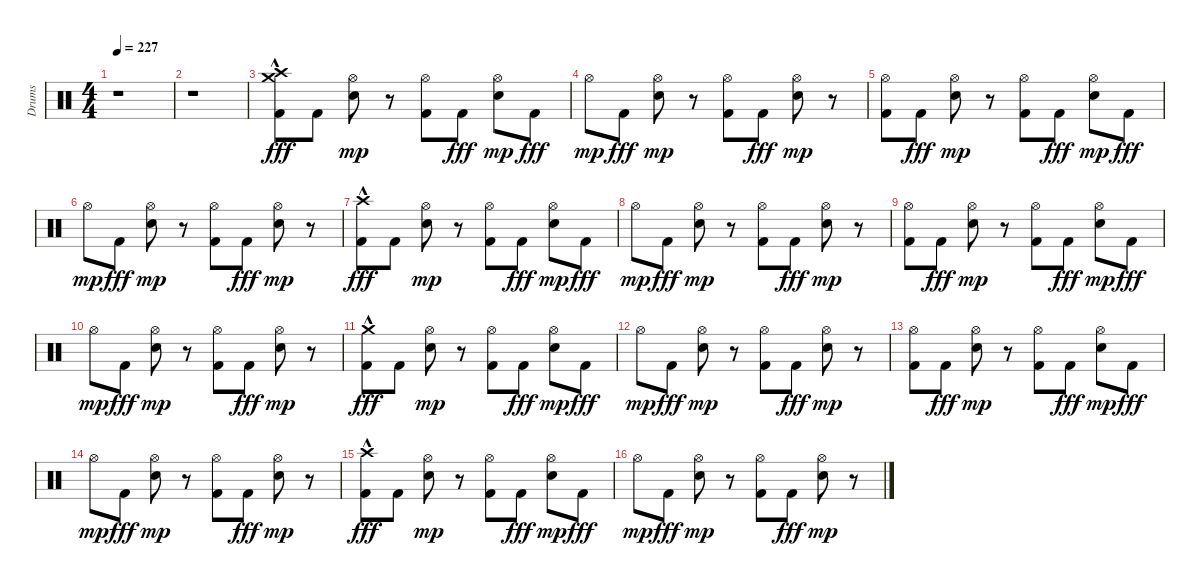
\track ("Drums" "Drums") {instrument percussion}
\staff {score}
\articulation defaults
\ts (4 4)
\tempo 227
\clef neutral
\ks c
r.1{dy fff} |
r.1 |
("Kick (hit) 2" "Crash high (hit)"{hac} "Crash medium (hit)"{hac}).8 "Kick (hit) 2".8 ("Snare (hit) 2" "Hi-Hat (open)").8{dy mp} r.8 ("Kick (hit) 2" "Hi-Hat (open)").8 "Kick (hit) 2".8{dy fff} ("Snare (hit) 2" "Hi-Hat (open)").8{dy mp} "Kick (hit) 2".8{dy fff} |
"Hi-Hat (open)".8{dy mp} "Kick (hit) 2".8{dy fff} ("Snare (hit) 2" "Hi-Hat (open)").8{dy mp} r.8 ("Kick (hit) 2" "Hi-Hat (open)").8 "Kick (hit) 2".8{dy fff} ("Snare (hit) 2" "Hi-Hat (open)").8{dy mp} r.8 |
("Kick (hit) 2" "Hi-Hat (open)").8 "Kick (hit) 2".8{dy fff} ("Snare (hit) 2" "Hi-Hat (open)").8{dy mp} r.8 ("Kick (hit) 2" "Hi-Hat (open)").8 "Kick (hit) 2".8{dy fff} ("Snare (hit) 2" "Hi-Hat (open)").8{dy mp} "Kick (hit) 2".8{dy fff} |
"Hi-Hat (open)".8{dy mp} "Kick (hit) 2".8{dy fff} ("Snare (hit) 2" "Hi-Hat (open)").8{dy mp} r.8 ("Kick (hit) 2" "Hi-Hat (open)").8 "Kick (hit) 2".8{dy fff} ("Snare (hit) 2" "Hi-Hat (open)").8{dy mp} r.8 |
("Kick (hit) 2" "Crash high (hit)"{hac}).8{dy fff} "Kick (hit) 2".8 ("Snare (hit) 2" "Hi-Hat (open)").8{dy mp} r.8 ("Kick (hit) 2" "Hi-Hat (open)").8 "Kick (hit) 2".8{dy fff} ("Snare (hit) 2" "Hi-Hat (open)").8{dy mp} "Kick (hit) 2".8{dy fff} |
"Hi-Hat (open)".8{dy mp} "Kick (hit) 2".8{dy fff} ("Snare (hit) 2" "Hi-Hat (open)").8{dy mp} r.8 ("Kick (hit) 2" "Hi-Hat (open)").8 "Kick (hit) 2".8{dy fff} ("Snare (hit) 2" "Hi-Hat (open)").8{dy mp} r.8 |
("Kick (hit) 2" "Hi-Hat (open)").8 "Kick (hit) 2".8{dy fff} ("Snare (hit) 2" "Hi-Hat (open)").8{dy mp} r.8 ("Kick (hit) 2" "Hi-Hat (open)").8 "Kick (hit) 2".8{dy fff} ("Snare (hit) 2" "Hi-Hat (open)").8{dy mp} "Kick (hit) 2".8{dy fff} |
"Hi-Hat (open)".8{dy mp} "Kick (hit) 2".8{dy fff} ("Snare (hit) 2" "Hi-Hat (open)").8{dy mp} r.8 ("Kick (hit) 2" "Hi-Hat (open)").8 "Kick (hit) 2".8{dy fff} ("Snare (hit) 2" "Hi-Hat (open)").8{dy mp} r.8 |
("Kick (hit) 2" "Crash medium (hit)"{hac}).8{dy fff} "Kick (hit) 2".8 ("Snare (hit) 2" "Hi-Hat (open)").8{dy mp} r.8 ("Kick (hit) 2" "Hi-Hat (open)").8 "Kick (hit) 2".8{dy fff} ("Snare (hit) 2" "Hi-Hat (open)").8{dy mp} "Kick (hit) 2".8{dy fff} |
"Hi-Hat (open)".8{dy mp} "Kick (hit) 2".8{dy fff} ("Snare (hit) 2" "Hi-Hat (open)").8{dy mp} r.8 ("Kick (hit) 2" "Hi-Hat (open)").8 "Kick (hit) 2".8{dy fff} ("Snare (hit) 2" "Hi-Hat (open)").8{dy mp} r.8 |
("Kick (hit) 2" "Hi-Hat (open)").8 "Kick (hit) 2".8{dy fff} ("Snare (hit) 2" "Hi-Hat (open)").8{dy mp} r.8 ("Kick (hit) 2" "Hi-Hat (open)").8 "Kick (hit) 2".8{dy fff} ("Snare (hit) 2" "Hi-Hat (open)").8{dy mp} "Kick (hit) 2".8{dy fff} |
"Hi-Hat (open)".8{dy mp} "Kick (hit) 2".8{dy fff} ("Snare (hit) 2" "Hi-Hat (open)").8{dy mp} r.8 ("Kick (hit) 2" "Hi-Hat (open)").8 "Kick (hit) 2".8{dy fff} ("Snare (hit) 2" "Hi-Hat (open)").8{dy mp} r.8 |
("Kick (hit) 2" "Crash high (hit)"{hac}).8{dy fff} "Kick (hit) 2".8 ("Snare (hit) 2" "Hi-Hat (open)").8{dy mp} r.8 ("Kick (hit) 2" "Hi-Hat (open)").8 "Kick (hit) 2".8{dy fff} ("Snare (hit) 2" "Hi-Hat (open)").8{dy mp} "Kick (hit) 2".8{dy fff} |
"Hi-Hat (open)".8{dy mp} "Kick (hit) 2".8{dy fff} ("Snare (hit) 2" "Hi-Hat (open)").8{dy mp} r.8 ("Kick (hit) 2" "Hi-Hat (open)").8 "Kick (hit) 2".8{dy fff} ("Snare (hit) 2" "Hi-Hat (open)").8{dy mp} r.8
